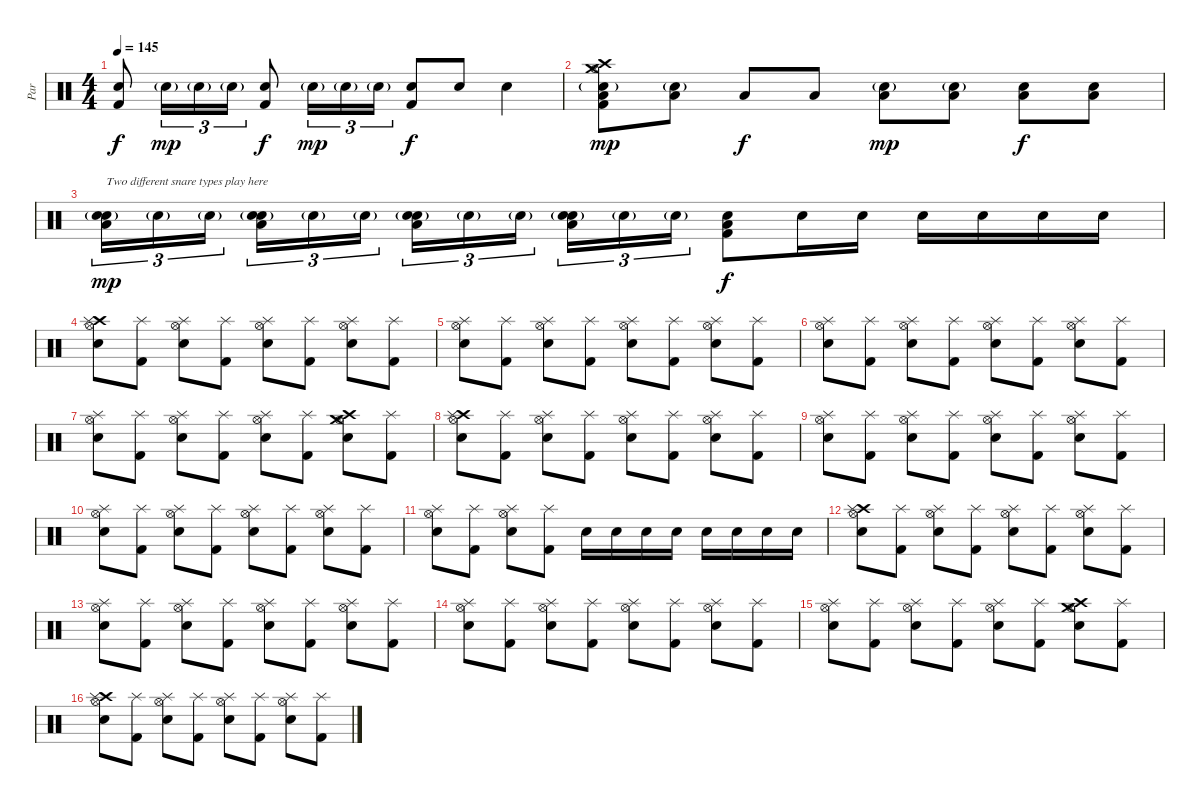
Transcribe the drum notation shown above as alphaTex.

\track ("Par" "Par") {instrument percussion}
\staff {score}
\articulation defaults
\ts (4 4)
\tempo 145
\clef neutral
\ks c
("Snare (hit) 2" "Kick (hit) 2").8{dy f} "Snare (hit) 2"{g}.16{tu (3 2) dy mp} "Snare (hit) 2"{g}.16{tu (3 2)} "Snare (hit) 2"{g}.16{tu (3 2)} ("Snare (hit) 2" "Kick (hit) 2").8{dy f} "Snare (hit) 2"{g}.16{tu (3 2) dy mp} "Snare (hit) 2"{g}.16{tu (3 2)} "Snare (hit) 2"{g}.16{tu (3 2)} ("Snare (hit) 2" "Kick (hit) 2").8{dy f} "Snare (hit) 2".8 "Snare (hit) 2".4 |
("Crash medium (hit)" "Crash high (hit)" "Hi-Hat (open)" "Snare (hit) 2"{g} "Low Floor Tom (hit)" "Kick (hit) 2").8{dy mp} ("Snare (hit) 2"{g} "Low Floor Tom (hit)").8 "Low Floor Tom (hit)".8{dy f} "Low Floor Tom (hit)".8 ("Snare (hit) 2"{g} "Low Floor Tom (hit)").8{dy mp} ("Snare (hit) 2"{g} "Low Floor Tom (hit)").8 ("Snare (hit) 2" "Low Floor Tom (hit)").8{dy f} ("Snare (hit) 2" "Low Floor Tom (hit)").8 |
("Electric Snare (hit)"{g} "Snare (hit) 2" "Low Floor Tom (hit)").16{tu (3 2) txt "Two different snare types play here" dy mp} "Electric Snare (hit)"{g}.16{tu (3 2)} "Electric Snare (hit)"{g}.16{tu (3 2) beam splitsecondary} ("Electric Snare (hit)"{g} "Snare (hit) 2" "Low Floor Tom (hit)").16{tu (3 2)} "Electric Snare (hit)"{g}.16{tu (3 2)} "Electric Snare (hit)"{g}.16{tu (3 2)} ("Electric Snare (hit)"{g} "Snare (hit) 2" "Low Floor Tom (hit)").16{tu (3 2)} "Electric Snare (hit)"{g}.16{tu (3 2)} "Electric Snare (hit)"{g}.16{tu (3 2) beam splitsecondary} ("Electric Snare (hit)"{g} "Snare (hit) 2" "Low Floor Tom (hit)").16{tu (3 2)} "Electric Snare (hit)"{g}.16{tu (3 2)} "Electric Snare (hit)"{g}.16{tu (3 2)} ("Snare (hit) 2" "Low Floor Tom (hit)" "Kick (hit) 2").8{dy f} "Snare (hit) 2".16 "Snare (hit) 2".16 "Snare (hit) 2".16 "Snare (hit) 2".16 "Snare (hit) 2".16 "Snare (hit) 2".16 |
("Crash high (hit)" "Splash (hit)" "Hi-Hat (open)" "Snare (hit) 2").8 ("Splash (hit)" "Kick (hit) 2").8 ("Splash (hit)" "Hi-Hat (open)" "Snare (hit) 2").8 ("Splash (hit)" "Kick (hit) 2").8 ("Splash (hit)" "Hi-Hat (open)" "Snare (hit) 2").8 ("Splash (hit)" "Kick (hit) 2").8 ("Splash (hit)" "Hi-Hat (open)" "Snare (hit) 2").8 ("Splash (hit)" "Kick (hit) 2").8 |
("Splash (hit)" "Hi-Hat (open)" "Snare (hit) 2").8 ("Splash (hit)" "Kick (hit) 2").8 ("Splash (hit)" "Hi-Hat (open)" "Snare (hit) 2").8 ("Splash (hit)" "Kick (hit) 2").8 ("Splash (hit)" "Hi-Hat (open)" "Snare (hit) 2").8 ("Splash (hit)" "Kick (hit) 2").8 ("Splash (hit)" "Hi-Hat (open)" "Snare (hit) 2").8 ("Splash (hit)" "Kick (hit) 2").8 |
("Splash (hit)" "Hi-Hat (open)" "Snare (hit) 2").8 ("Splash (hit)" "Kick (hit) 2").8 ("Splash (hit)" "Hi-Hat (open)" "Snare (hit) 2").8 ("Splash (hit)" "Kick (hit) 2").8 ("Splash (hit)" "Hi-Hat (open)" "Snare (hit) 2").8 ("Splash (hit)" "Kick (hit) 2").8 ("Splash (hit)" "Hi-Hat (open)" "Snare (hit) 2").8 ("Splash (hit)" "Kick (hit) 2").8 |
("Splash (hit)" "Hi-Hat (open)" "Snare (hit) 2").8 ("Splash (hit)" "Kick (hit) 2").8 ("Splash (hit)" "Hi-Hat (open)" "Snare (hit) 2").8 ("Splash (hit)" "Kick (hit) 2").8 ("Splash (hit)" "Hi-Hat (open)" "Snare (hit) 2").8 ("Splash (hit)" "Kick (hit) 2").8 ("Crash medium (hit)" "Crash high (hit)" "Hi-Hat (open)" "Snare (hit) 2").8 ("Splash (hit)" "Kick (hit) 2").8 |
("Crash high (hit)" "Splash (hit)" "Hi-Hat (open)" "Snare (hit) 2").8 ("Splash (hit)" "Kick (hit) 2").8 ("Splash (hit)" "Hi-Hat (open)" "Snare (hit) 2").8 ("Splash (hit)" "Kick (hit) 2").8 ("Splash (hit)" "Hi-Hat (open)" "Snare (hit) 2").8 ("Splash (hit)" "Kick (hit) 2").8 ("Splash (hit)" "Hi-Hat (open)" "Snare (hit) 2").8 ("Splash (hit)" "Kick (hit) 2").8 |
("Splash (hit)" "Hi-Hat (open)" "Snare (hit) 2").8 ("Splash (hit)" "Kick (hit) 2").8 ("Splash (hit)" "Hi-Hat (open)" "Snare (hit) 2").8 ("Splash (hit)" "Kick (hit) 2").8 ("Splash (hit)" "Hi-Hat (open)" "Snare (hit) 2").8 ("Splash (hit)" "Kick (hit) 2").8 ("Splash (hit)" "Hi-Hat (open)" "Snare (hit) 2").8 ("Splash (hit)" "Kick (hit) 2").8 |
("Splash (hit)" "Hi-Hat (open)" "Snare (hit) 2").8 ("Splash (hit)" "Kick (hit) 2").8 ("Splash (hit)" "Hi-Hat (open)" "Snare (hit) 2").8 ("Splash (hit)" "Kick (hit) 2").8 ("Splash (hit)" "Hi-Hat (open)" "Snare (hit) 2").8 ("Splash (hit)" "Kick (hit) 2").8 ("Splash (hit)" "Hi-Hat (open)" "Snare (hit) 2").8 ("Splash (hit)" "Kick (hit) 2").8 |
("Splash (hit)" "Hi-Hat (open)" "Snare (hit) 2").8 ("Splash (hit)" "Kick (hit) 2").8 ("Splash (hit)" "Hi-Hat (open)" "Snare (hit) 2").8 ("Splash (hit)" "Kick (hit) 2").8 "Snare (hit) 2".16 "Snare (hit) 2".16 "Snare (hit) 2".16 "Snare (hit) 2".16 "Snare (hit) 2".16 "Snare (hit) 2".16 "Snare (hit) 2".16 "Snare (hit) 2".16 |
("Crash high (hit)" "Splash (hit)" "Hi-Hat (open)" "Snare (hit) 2").8 ("Splash (hit)" "Kick (hit) 2").8 ("Splash (hit)" "Hi-Hat (open)" "Snare (hit) 2").8 ("Splash (hit)" "Kick (hit) 2").8 ("Splash (hit)" "Hi-Hat (open)" "Snare (hit) 2").8 ("Splash (hit)" "Kick (hit) 2").8 ("Splash (hit)" "Hi-Hat (open)" "Snare (hit) 2").8 ("Splash (hit)" "Kick (hit) 2").8 |
("Splash (hit)" "Hi-Hat (open)" "Snare (hit) 2").8 ("Splash (hit)" "Kick (hit) 2").8 ("Splash (hit)" "Hi-Hat (open)" "Snare (hit) 2").8 ("Splash (hit)" "Kick (hit) 2").8 ("Splash (hit)" "Hi-Hat (open)" "Snare (hit) 2").8 ("Splash (hit)" "Kick (hit) 2").8 ("Splash (hit)" "Hi-Hat (open)" "Snare (hit) 2").8 ("Splash (hit)" "Kick (hit) 2").8 |
("Splash (hit)" "Hi-Hat (open)" "Snare (hit) 2").8 ("Splash (hit)" "Kick (hit) 2").8 ("Splash (hit)" "Hi-Hat (open)" "Snare (hit) 2").8 ("Splash (hit)" "Kick (hit) 2").8 ("Splash (hit)" "Hi-Hat (open)" "Snare (hit) 2").8 ("Splash (hit)" "Kick (hit) 2").8 ("Splash (hit)" "Hi-Hat (open)" "Snare (hit) 2").8 ("Splash (hit)" "Kick (hit) 2").8 |
("Splash (hit)" "Hi-Hat (open)" "Snare (hit) 2").8 ("Splash (hit)" "Kick (hit) 2").8 ("Splash (hit)" "Hi-Hat (open)" "Snare (hit) 2").8 ("Splash (hit)" "Kick (hit) 2").8 ("Splash (hit)" "Hi-Hat (open)" "Snare (hit) 2").8 ("Splash (hit)" "Kick (hit) 2").8 ("Crash medium (hit)" "Crash high (hit)" "Hi-Hat (open)" "Snare (hit) 2").8 ("Splash (hit)" "Kick (hit) 2").8 |
("Crash high (hit)" "Splash (hit)" "Hi-Hat (open)" "Snare (hit) 2").8 ("Splash (hit)" "Kick (hit) 2").8 ("Splash (hit)" "Hi-Hat (open)" "Snare (hit) 2").8 ("Splash (hit)" "Kick (hit) 2").8 ("Splash (hit)" "Hi-Hat (open)" "Snare (hit) 2").8 ("Splash (hit)" "Kick (hit) 2").8 ("Splash (hit)" "Hi-Hat (open)" "Snare (hit) 2").8 ("Splash (hit)" "Kick (hit) 2").8
